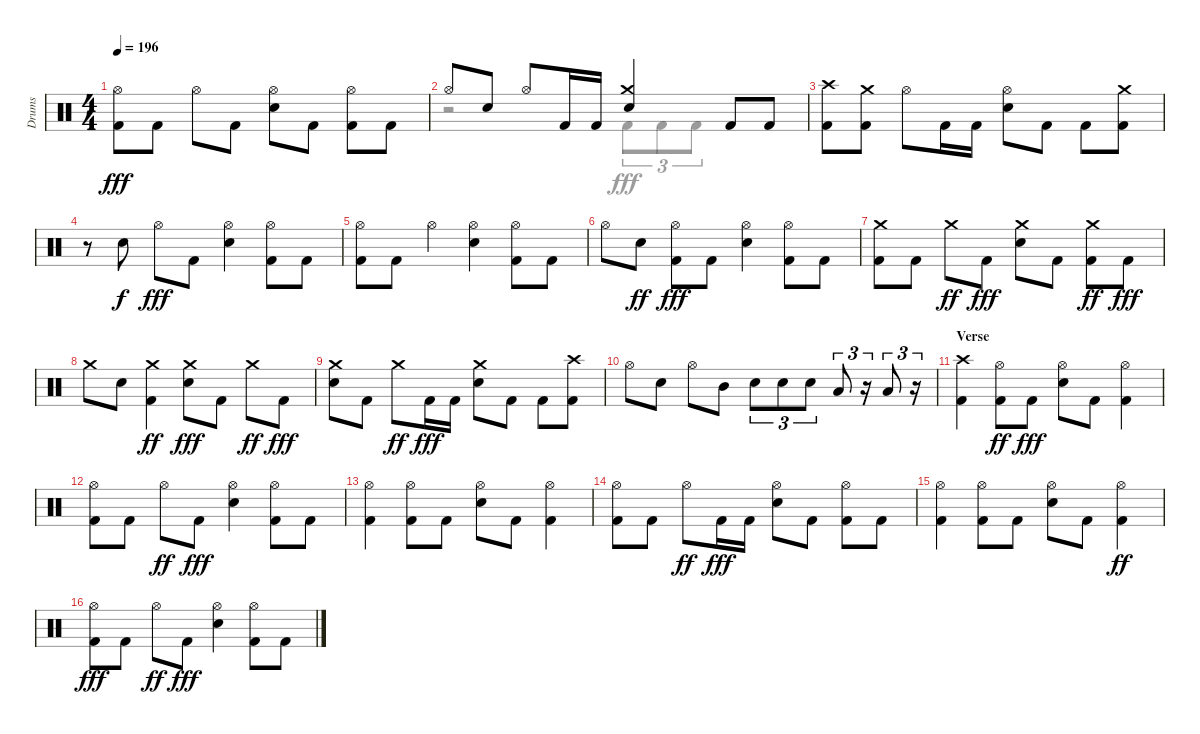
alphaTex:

\track ("Drums" "Drums") {instrument percussion}
\staff {score}
\articulation defaults
\voice
\ts (4 4)
\tempo 196
\clef neutral
\ks aminor
("Kick (hit) 2" "Hi-Hat (open)").8{dy fff} "Kick (hit) 2".8 "Hi-Hat (open)".8 "Kick (hit) 2".8 ("Snare (hit) 2" "Hi-Hat (open)").8 "Kick (hit) 2".8 ("Kick (hit) 2" "Hi-Hat (open)").8 "Kick (hit) 2".8 |
"Hi-Hat (open)".8 "Snare (hit) 2".8 "Hi-Hat (open)".8 "Kick (hit) 2".16 "Kick (hit) 2".16 ("Snare (hit) 2" "Crash medium (hit)").4 "Kick (hit) 2".8 "Kick (hit) 2".8 |
("Kick (hit) 2" "Crash high (hit)").8 ("Crash medium (hit)" "Kick (hit) 2").8 "Hi-Hat (open)".8 "Kick (hit) 2".16 "Kick (hit) 2".16 ("Snare (hit) 2" "Hi-Hat (open)").8 "Kick (hit) 2".8 "Kick (hit) 2".8 ("Crash medium (hit)" "Kick (hit) 2").8 |
r.8 "Snare (hit) 2".8{dy f} "Hi-Hat (open)".8{dy fff} "Kick (hit) 2".8 ("Hi-Hat (open)" "Snare (hit) 2").4 ("Hi-Hat (open)" "Kick (hit) 2").8 "Kick (hit) 2".8 |
("Kick (hit) 2" "Hi-Hat (open)").8 "Kick (hit) 2".8 "Hi-Hat (open)".4 ("Snare (hit) 2" "Hi-Hat (open)").4 ("Kick (hit) 2" "Hi-Hat (open)").8 "Kick (hit) 2".8 |
"Hi-Hat (open)".8 "Snare (hit) 2".8{dy ff} ("Kick (hit) 2" "Hi-Hat (open)").8{dy fff} "Kick (hit) 2".8 ("Snare (hit) 2" "Hi-Hat (open)").4 ("Hi-Hat (open)" "Kick (hit) 2").8 "Kick (hit) 2".8 |
("Kick (hit) 2" "Crash medium (hit)").8 "Kick (hit) 2".8 "Crash medium (hit)".8{dy ff} "Kick (hit) 2".8{dy fff} ("Snare (hit) 2" "Crash medium (hit)").8 "Kick (hit) 2".8 ("Crash medium (hit)" "Kick (hit) 2").8{dy ff} "Kick (hit) 2".8{dy fff} |
"Crash medium (hit)".8 "Snare (hit) 2".8 ("Kick (hit) 2" "Crash medium (hit)").4{dy ff} ("Crash medium (hit)" "Snare (hit) 2").8{dy fff} "Kick (hit) 2".8 "Crash medium (hit)".8{dy ff} "Kick (hit) 2".8{dy fff} |
("Crash medium (hit)" "Snare (hit) 2").8 "Kick (hit) 2".8 "Crash medium (hit)".8{dy ff} "Kick (hit) 2".16{dy fff} "Kick (hit) 2".16 ("Snare (hit) 2" "Crash medium (hit)").8 "Kick (hit) 2".8 "Kick (hit) 2".8 ("Kick (hit) 2" "Crash high (hit)").8 |
"Hi-Hat (open)".8 "Snare (hit) 2".8 "Hi-Hat (open)".8 "Mid Tom (hit)".8 "Snare (hit) 2".8{tu (3 2)} "Snare (hit) 2".8{tu (3 2)} "Snare (hit) 2".8{tu (3 2)} "Low Tom (hit)".8{tu (3 2)} r.16{tu (3 2)} "Low Tom (hit)".8{tu (3 2)} r.16{tu (3 2)} |
\section ("" "Verse")
("Kick (hit) 2" "Crash high (hit)").4 ("Hi-Hat (open)" "Kick (hit) 2").8{dy ff} "Kick (hit) 2".8{dy fff} ("Hi-Hat (open)" "Snare (hit) 2").8 "Kick (hit) 2".8 ("Kick (hit) 2" "Hi-Hat (open)").4 |
("Kick (hit) 2" "Hi-Hat (open)").8 "Kick (hit) 2".8 "Hi-Hat (open)".8{dy ff} "Kick (hit) 2".8{dy fff} ("Hi-Hat (open)" "Snare (hit) 2").4 ("Kick (hit) 2" "Hi-Hat (open)").8 "Kick (hit) 2".8 |
("Hi-Hat (open)" "Kick (hit) 2").4 ("Hi-Hat (open)" "Kick (hit) 2").8 "Kick (hit) 2".8 ("Hi-Hat (open)" "Snare (hit) 2").8 "Kick (hit) 2".8 ("Hi-Hat (open)" "Kick (hit) 2").4 |
("Kick (hit) 2" "Hi-Hat (open)").8 "Kick (hit) 2".8 "Hi-Hat (open)".8{dy ff} "Kick (hit) 2".16{dy fff} "Kick (hit) 2".16 ("Hi-Hat (open)" "Snare (hit) 2").8 "Kick (hit) 2".8 ("Kick (hit) 2" "Hi-Hat (open)").8 "Kick (hit) 2".8 |
("Hi-Hat (open)" "Kick (hit) 2").4 ("Hi-Hat (open)" "Kick (hit) 2").8 "Kick (hit) 2".8 ("Snare (hit) 2" "Hi-Hat (open)").8 "Kick (hit) 2".8 ("Kick (hit) 2" "Hi-Hat (open)").4{dy ff} |
("Kick (hit) 2" "Hi-Hat (open)").8{dy fff} "Kick (hit) 2".8 "Hi-Hat (open)".8{dy ff} "Kick (hit) 2".8{dy fff} ("Hi-Hat (open)" "Snare (hit) 2").4 ("Hi-Hat (open)" "Kick (hit) 2").8 "Kick (hit) 2".8
\voice
\clef neutral
\ottava regular
\simile none
\ks aminor
|
r.2 "Kick (hit) 2".8{tu (3 2)} "Kick (hit) 2".8{tu (3 2)} "Kick (hit) 2".8{tu (3 2)} |
|
|
|
|
|
|
|
|
|
|
|
|
|
